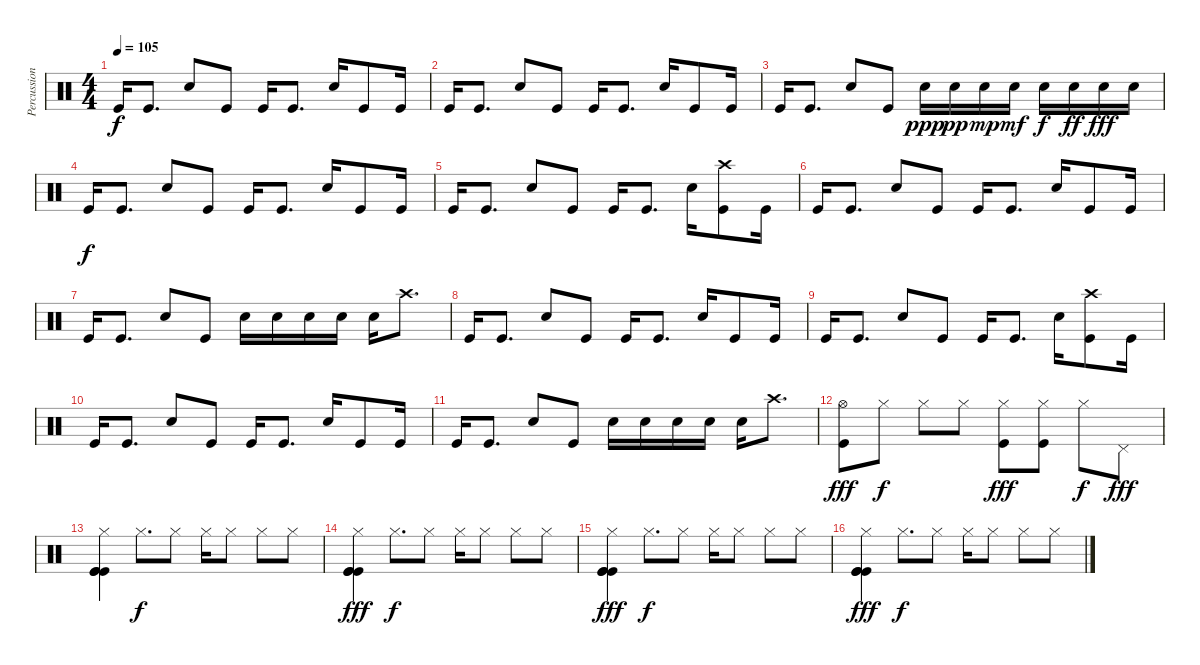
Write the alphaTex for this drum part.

\track ("Percussion" "Percussion") {instrument percussion}
\staff {score}
\articulation defaults
\ts (4 4)
\tempo 105
\clef neutral
\ks c "Kick (hit)".16{dy f} "Kick (hit)".8{d} "Electric Snare (hit)".8 "Kick (hit)".8 "Kick (hit)".16 "Kick (hit)".8{d} "Electric Snare (hit)".16 "Kick (hit)".8 "Kick (hit)".16
|
"Kick (hit)".16 "Kick (hit)".8{d} "Electric Snare (hit)".8 "Kick (hit)".8 "Kick (hit)".16 "Kick (hit)".8{d} "Electric Snare (hit)".16 "Kick (hit)".8 "Kick (hit)".16 |
"Kick (hit)".16 "Kick (hit)".8{d} "Electric Snare (hit)".8 "Kick (hit)".8 "Electric Snare (hit)".16{dy ppp} "Electric Snare (hit)".16{dy pp} "Electric Snare (hit)".16{dy mp} "Electric Snare (hit)".16{dy mf} "Electric Snare (hit)".16{dy f} "Electric Snare (hit)".16{dy ff} "Electric Snare (hit)".16{dy fff} "Electric Snare (hit)".16 |
"Kick (hit)".16{dy f} "Kick (hit)".8{d} "Electric Snare (hit)".8 "Kick (hit)".8 "Kick (hit)".16 "Kick (hit)".8{d} "Electric Snare (hit)".16 "Kick (hit)".8 "Kick (hit)".16 |
"Kick (hit)".16 "Kick (hit)".8{d} "Electric Snare (hit)".8 "Kick (hit)".8 "Kick (hit)".16 "Kick (hit)".8{d} "Electric Snare (hit)".16 ("Crash high (hit)" "Kick (hit)").8 "Kick (hit)".16 |
"Kick (hit)".16 "Kick (hit)".8{d} "Electric Snare (hit)".8 "Kick (hit)".8 "Kick (hit)".16 "Kick (hit)".8{d} "Electric Snare (hit)".16 "Kick (hit)".8 "Kick (hit)".16 |
"Kick (hit)".16 "Kick (hit)".8{d} "Electric Snare (hit)".8 "Kick (hit)".8 "Electric Snare (hit)".16 "Electric Snare (hit)".16 "Electric Snare (hit)".16 "Electric Snare (hit)".16 "Electric Snare (hit)".16 "Crash high (hit)".8{d} |
"Kick (hit)".16 "Kick (hit)".8{d} "Electric Snare (hit)".8 "Kick (hit)".8 "Kick (hit)".16 "Kick (hit)".8{d} "Electric Snare (hit)".16 "Kick (hit)".8 "Kick (hit)".16 |
"Kick (hit)".16 "Kick (hit)".8{d} "Electric Snare (hit)".8 "Kick (hit)".8 "Kick (hit)".16 "Kick (hit)".8{d} "Electric Snare (hit)".16 ("Crash high (hit)" "Kick (hit)").8 "Kick (hit)".16 |
"Kick (hit)".16 "Kick (hit)".8{d} "Electric Snare (hit)".8 "Kick (hit)".8 "Kick (hit)".16 "Kick (hit)".8{d} "Electric Snare (hit)".16 "Kick (hit)".8 "Kick (hit)".16 |
"Kick (hit)".16 "Kick (hit)".8{d} "Electric Snare (hit)".8 "Kick (hit)".8 "Electric Snare (hit)".16 "Electric Snare (hit)".16 "Electric Snare (hit)".16 "Electric Snare (hit)".16 "Electric Snare (hit)".16 "Crash high (hit)".8{d} |
("Hi-Hat (open)" "Kick (hit)").8{dy fff} "Hi-Hat (closed)".8{dy f} "Hi-Hat (closed)".8 "Hi-Hat (closed)".8 ("Hi-Hat (closed)" "Kick (hit)").8{dy fff} ("Hi-Hat (closed)" "Kick (hit)").8 "Hi-Hat (closed)".8{dy f} "Pedal Hi-Hat (hit)".8{dy fff} |
("Hi-Hat (closed)" "Kick (hit)" "Kick (hit)" "Kick (hit)").4 "Hi-Hat (closed)".8{d dy f} "Hi-Hat (closed)".8 "Hi-Hat (closed)".16 "Hi-Hat (closed)".8 "Hi-Hat (closed)".8 "Hi-Hat (closed)".8 |
("Hi-Hat (closed)" "Kick (hit)" "Kick (hit)" "Kick (hit)").4{dy fff} "Hi-Hat (closed)".8{d dy f} "Hi-Hat (closed)".8 "Hi-Hat (closed)".16 "Hi-Hat (closed)".8 "Hi-Hat (closed)".8 "Hi-Hat (closed)".8 |
("Hi-Hat (closed)" "Kick (hit)" "Kick (hit)" "Kick (hit)").4{dy fff} "Hi-Hat (closed)".8{d dy f} "Hi-Hat (closed)".8 "Hi-Hat (closed)".16 "Hi-Hat (closed)".8 "Hi-Hat (closed)".8 "Hi-Hat (closed)".8 |
("Hi-Hat (closed)" "Kick (hit)" "Kick (hit)" "Kick (hit)").4{dy fff} "Hi-Hat (closed)".8{d dy f} "Hi-Hat (closed)".8 "Hi-Hat (closed)".16 "Hi-Hat (closed)".8 "Hi-Hat (closed)".8 "Hi-Hat (closed)".8
